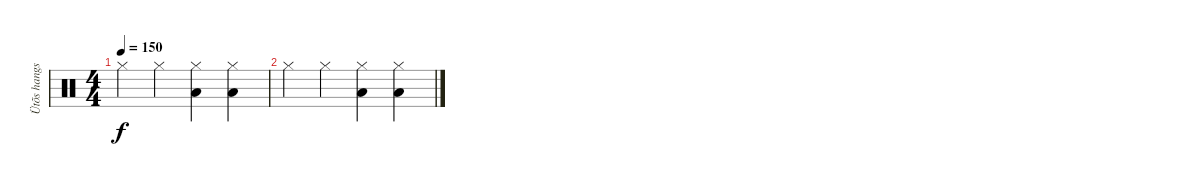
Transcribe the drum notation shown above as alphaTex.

\track ("Ütõs hangszer" "Ütõs hangs") {instrument percussion}
\staff {score}
\articulation defaults
\ts (4 4)
\tempo 150
\clef neutral
\ks c "Hi-Hat (closed)".4{dy f} "Hi-Hat (closed)".4
("Hi-Hat (closed)" "Low Tom (hit)").4 ("Hi-Hat (closed)" "Low Tom (hit)").4 |
"Hi-Hat (closed)".4 "Hi-Hat (closed)".4 ("Hi-Hat (closed)" "Low Floor Tom (hit)").4 ("Hi-Hat (closed)" "Low Floor Tom (hit)").4
